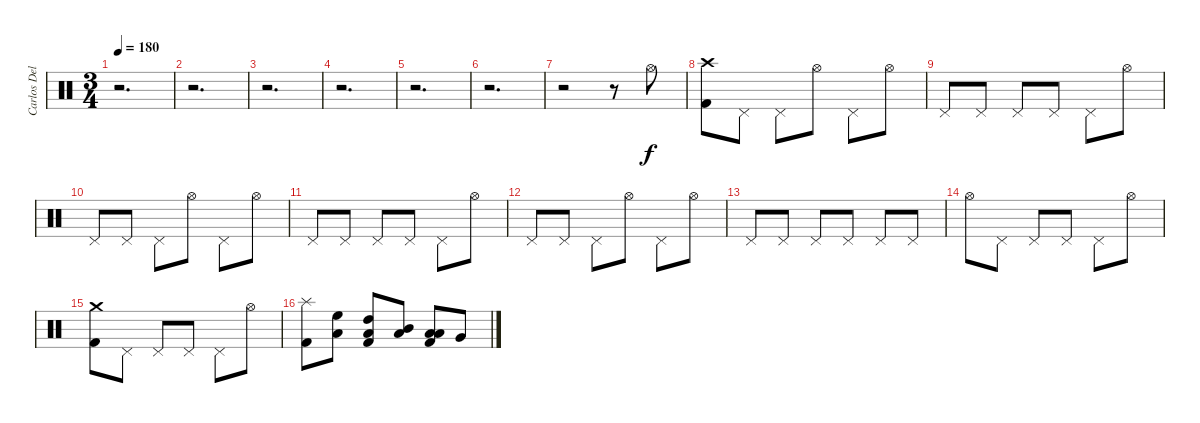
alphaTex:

\track ("Carlos Delgado" "Carlos Del") {instrument percussion}
\staff {score}
\articulation defaults
\ts (3 4)
\tempo 180
\clef neutral
\ks c
r.2{d dy f} |
r.2{d} |
r.2{d} |
r.2{d} |
r.2{d} |
r.2{d} |
r.2 r.8 "Hi-Hat (open)".8 |
("Kick (hit) 2" "Crash high (hit)").8 "Pedal Hi-Hat (hit)".8 "Pedal Hi-Hat (hit)".8 "Hi-Hat (open)".8 "Pedal Hi-Hat (hit)".8 "Hi-Hat (open)".8 |
"Pedal Hi-Hat (hit)".8 "Pedal Hi-Hat (hit)".8 "Pedal Hi-Hat (hit)".8 "Pedal Hi-Hat (hit)".8 "Pedal Hi-Hat (hit)".8 "Hi-Hat (open)".8 |
"Pedal Hi-Hat (hit)".8 "Pedal Hi-Hat (hit)".8 "Pedal Hi-Hat (hit)".8 "Hi-Hat (open)".8 "Pedal Hi-Hat (hit)".8 "Hi-Hat (open)".8 |
"Pedal Hi-Hat (hit)".8 "Pedal Hi-Hat (hit)".8 "Pedal Hi-Hat (hit)".8 "Pedal Hi-Hat (hit)".8 "Pedal Hi-Hat (hit)".8 "Hi-Hat (open)".8 |
"Pedal Hi-Hat (hit)".8 "Pedal Hi-Hat (hit)".8 "Pedal Hi-Hat (hit)".8 "Hi-Hat (open)".8 "Pedal Hi-Hat (hit)".8 "Hi-Hat (open)".8 |
"Pedal Hi-Hat (hit)".8 "Pedal Hi-Hat (hit)".8 "Pedal Hi-Hat (hit)".8 "Pedal Hi-Hat (hit)".8 "Pedal Hi-Hat (hit)".8 "Pedal Hi-Hat (hit)".8 |
"Hi-Hat (open)".8 "Pedal Hi-Hat (hit)".8 "Pedal Hi-Hat (hit)".8 "Pedal Hi-Hat (hit)".8 "Pedal Hi-Hat (hit)".8 "Hi-Hat (open)".8 |
("Crash medium (hit)" "Kick (hit) 2").8 "Pedal Hi-Hat (hit)".8 "Pedal Hi-Hat (hit)".8 "Pedal Hi-Hat (hit)".8 "Pedal Hi-Hat (hit)".8 "Hi-Hat (open)".8 |
("Splash (hit)" "Kick (hit) 2").8 ("Low Floor Tom (hit)" "High Floor Tom (hit)").8 ("Kick (hit) 2" "High Tom (hit)" "Low Floor Tom (hit)").8 ("Low Floor Tom (hit)" "Mid Tom (hit)").8 ("Low Tom (hit)" "Kick (hit) 2" "Low Floor Tom (hit)").8 "Very Low Tom (hit)".8
